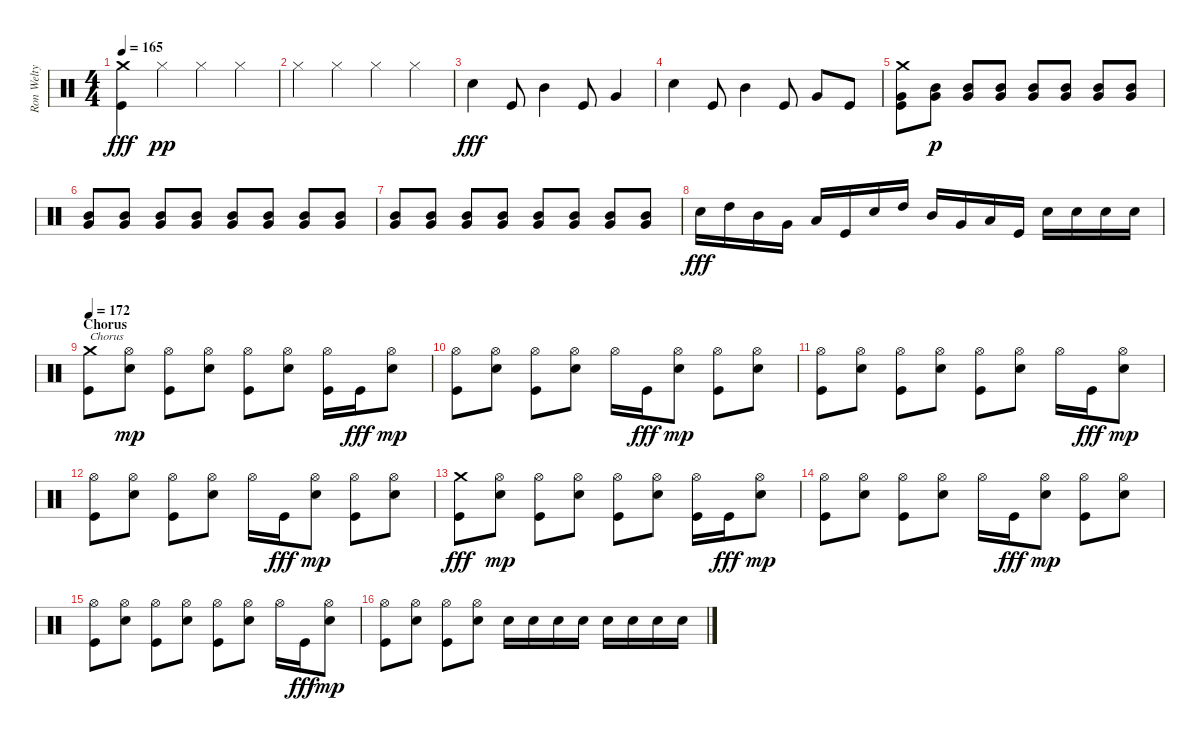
\track ("Ron Welty (John Wnek's tab)" "Ron Welty ") {instrument percussion}
\staff {score}
\articulation defaults
\ts (4 4)
\tempo 165
\clef neutral
\ks c
("Crash medium (hit)" "Kick (hit)").4{dy fff} "Hi-Hat (closed)".4{dy pp} "Hi-Hat (closed)".4 "Hi-Hat (closed)".4 |
"Hi-Hat (closed)".4 "Hi-Hat (closed)".4 "Hi-Hat (closed)".4 "Hi-Hat (closed)".4 |
"Snare (hit) 2".4{dy fff} "Kick (hit)".8 "Mid Tom (hit)".4 "Kick (hit)".8 "Very Low Tom (hit)".4 |
"Snare (hit) 2".4 "Kick (hit)".8 "Mid Tom (hit)".4 "Kick (hit)".8 "Very Low Tom (hit)".8 "Kick (hit)".8 |
("Crash medium (hit)" "Very Low Tom (hit)" "Kick (hit)").8 ("Mid Tom (hit)" "Very Low Tom (hit)").8{dy p} ("Mid Tom (hit)" "Very Low Tom (hit)").8 ("Mid Tom (hit)" "Very Low Tom (hit)").8 ("Mid Tom (hit)" "Very Low Tom (hit)").8 ("Mid Tom (hit)" "Very Low Tom (hit)").8 ("Mid Tom (hit)" "Very Low Tom (hit)").8 ("Mid Tom (hit)" "Very Low Tom (hit)").8 |
("Mid Tom (hit)" "Very Low Tom (hit)").8 ("Mid Tom (hit)" "Very Low Tom (hit)").8 ("Mid Tom (hit)" "Very Low Tom (hit)").8 ("Mid Tom (hit)" "Very Low Tom (hit)").8 ("Mid Tom (hit)" "Very Low Tom (hit)").8 ("Mid Tom (hit)" "Very Low Tom (hit)").8 ("Mid Tom (hit)" "Very Low Tom (hit)").8 ("Mid Tom (hit)" "Very Low Tom (hit)").8 |
("Mid Tom (hit)" "Very Low Tom (hit)").8 ("Mid Tom (hit)" "Very Low Tom (hit)").8 ("Mid Tom (hit)" "Very Low Tom (hit)").8 ("Mid Tom (hit)" "Very Low Tom (hit)").8 ("Mid Tom (hit)" "Very Low Tom (hit)").8 ("Mid Tom (hit)" "Very Low Tom (hit)").8 ("Mid Tom (hit)" "Very Low Tom (hit)").8 ("Mid Tom (hit)" "Very Low Tom (hit)").8 |
"Snare (hit) 2".16{dy fff} "High Tom (hit)".16 "Mid Tom (hit)".16 "Very Low Tom (hit)".16 "Low Floor Tom (hit)".16 "Kick (hit)".16 "Snare (hit) 2".16 "High Tom (hit)".16 "Mid Tom (hit)".16 "Very Low Tom (hit)".16 "Low Floor Tom (hit)".16 "Kick (hit)".16 "Snare (hit) 2".16 "Snare (hit) 2".16 "Snare (hit) 2".16 "Snare (hit) 2".16 |
\section ("" "Chorus")
\tempo 172
("Crash medium (hit)" "Kick (hit)").8{txt "Chorus"} ("Snare (hit) 2" "Hi-Hat (open)").8{dy mp} ("Kick (hit)" "Hi-Hat (open)").8 ("Snare (hit) 2" "Hi-Hat (open)").8 ("Kick (hit)" "Hi-Hat (open)").8 ("Snare (hit) 2" "Hi-Hat (open)").8 ("Kick (hit)" "Hi-Hat (open)").16 "Kick (hit)".16{dy fff} ("Snare (hit) 2" "Hi-Hat (open)").8{dy mp} |
("Kick (hit)" "Hi-Hat (open)").8 ("Snare (hit) 2" "Hi-Hat (open)").8 ("Kick (hit)" "Hi-Hat (open)").8 ("Snare (hit) 2" "Hi-Hat (open)").8 "Hi-Hat (open)".16 "Kick (hit)".16{dy fff} ("Snare (hit) 2" "Hi-Hat (open)").8{dy mp} ("Kick (hit)" "Hi-Hat (open)").8 ("Snare (hit) 2" "Hi-Hat (open)").8 |
("Kick (hit)" "Hi-Hat (open)").8 ("Snare (hit) 2" "Hi-Hat (open)").8 ("Kick (hit)" "Hi-Hat (open)").8 ("Snare (hit) 2" "Hi-Hat (open)").8 ("Kick (hit)" "Hi-Hat (open)").8 ("Snare (hit) 2" "Hi-Hat (open)").8 "Hi-Hat (open)".16 "Kick (hit)".16{dy fff} ("Snare (hit) 2" "Hi-Hat (open)").8{dy mp} |
("Kick (hit)" "Hi-Hat (open)").8 ("Snare (hit) 2" "Hi-Hat (open)").8 ("Kick (hit)" "Hi-Hat (open)").8 ("Snare (hit) 2" "Hi-Hat (open)").8 "Hi-Hat (open)".16 "Kick (hit)".16{dy fff} ("Snare (hit) 2" "Hi-Hat (open)").8{dy mp} ("Kick (hit)" "Hi-Hat (open)").8 ("Snare (hit) 2" "Hi-Hat (open)").8 |
("Crash medium (hit)" "Kick (hit)").8{dy fff} ("Snare (hit) 2" "Hi-Hat (open)").8{dy mp} ("Kick (hit)" "Hi-Hat (open)").8 ("Snare (hit) 2" "Hi-Hat (open)").8 ("Kick (hit)" "Hi-Hat (open)").8 ("Snare (hit) 2" "Hi-Hat (open)").8 ("Kick (hit)" "Hi-Hat (open)").16 "Kick (hit)".16{dy fff} ("Snare (hit) 2" "Hi-Hat (open)").8{dy mp} |
("Kick (hit)" "Hi-Hat (open)").8 ("Snare (hit) 2" "Hi-Hat (open)").8 ("Kick (hit)" "Hi-Hat (open)").8 ("Snare (hit) 2" "Hi-Hat (open)").8 "Hi-Hat (open)".16 "Kick (hit)".16{dy fff} ("Snare (hit) 2" "Hi-Hat (open)").8{dy mp} ("Kick (hit)" "Hi-Hat (open)").8 ("Snare (hit) 2" "Hi-Hat (open)").8 |
("Kick (hit)" "Hi-Hat (open)").8 ("Snare (hit) 2" "Hi-Hat (open)").8 ("Kick (hit)" "Hi-Hat (open)").8 ("Snare (hit) 2" "Hi-Hat (open)").8 ("Kick (hit)" "Hi-Hat (open)").8 ("Snare (hit) 2" "Hi-Hat (open)").8 "Hi-Hat (open)".16 "Kick (hit)".16{dy fff} ("Snare (hit) 2" "Hi-Hat (open)").8{dy mp} |
("Kick (hit)" "Hi-Hat (open)").8 ("Snare (hit) 2" "Hi-Hat (open)").8 ("Kick (hit)" "Hi-Hat (open)").8 ("Snare (hit) 2" "Hi-Hat (open)").8 "Snare (hit) 2".16 "Snare (hit) 2".16 "Snare (hit) 2".16 "Snare (hit) 2".16 "Snare (hit) 2".16 "Snare (hit) 2".16 "Snare (hit) 2".16 "Snare (hit) 2".16
